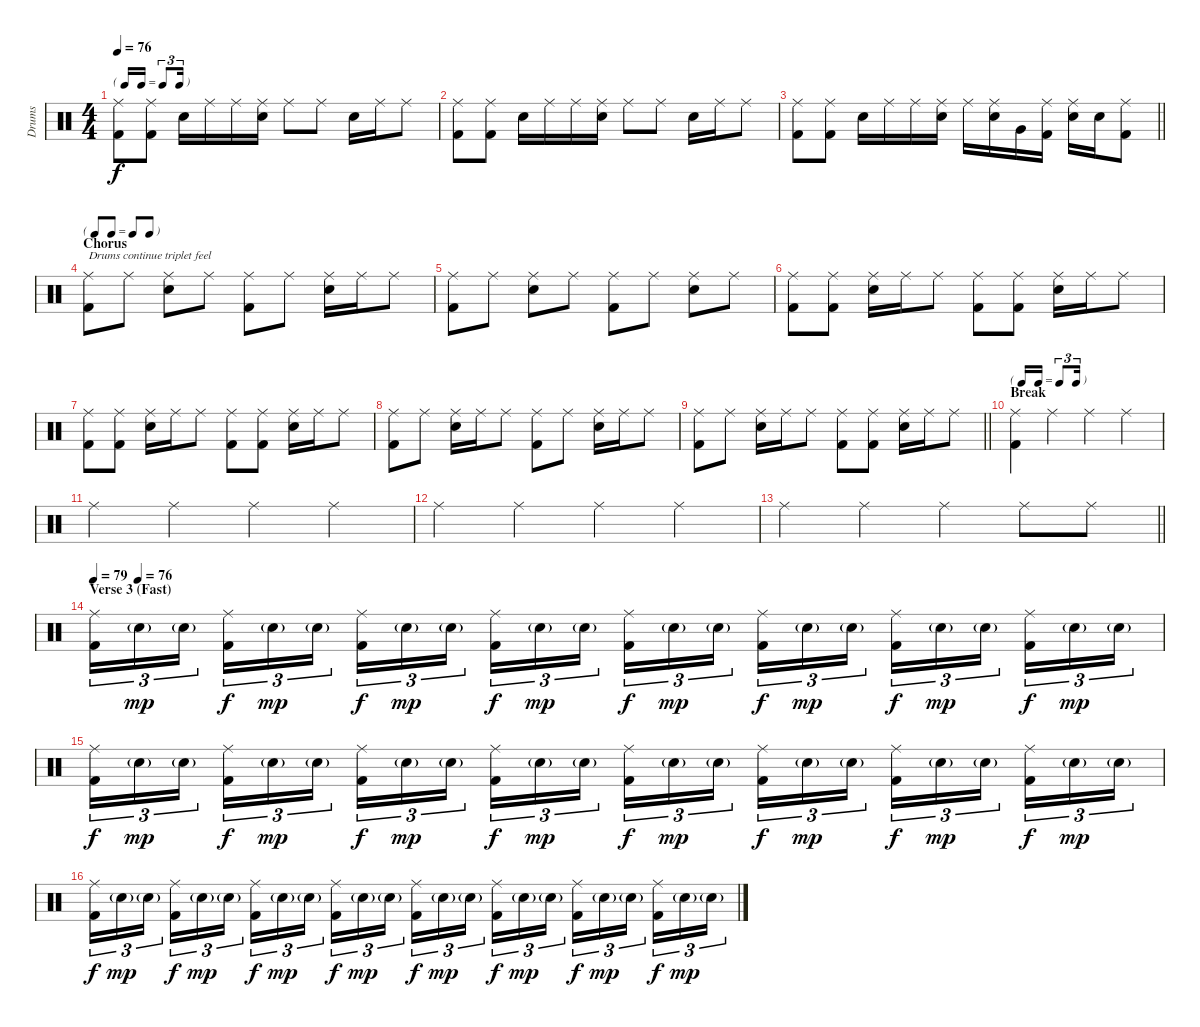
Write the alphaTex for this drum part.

\track ("Drums" "Drums") {instrument percussion}
\staff {score}
\articulation defaults
\ts (4 4)
\tf triplet16th
\tempo 76
\clef neutral
\ks c
("Ride (middle)" "Kick (hit) 2").8{dy f} ("Ride (middle)" "Kick (hit) 2").8 "Electric Snare (hit)".16 "Ride (middle)".16 "Ride (middle)".16 ("Ride (middle)" "Electric Snare (hit)").16 "Ride (middle)".8 "Ride (middle)".8 "Electric Snare (hit)".16 "Ride (middle)".16 "Ride (middle)".8 |
("Ride (middle)" "Kick (hit) 2").8 ("Ride (middle)" "Kick (hit) 2").8 "Electric Snare (hit)".16 "Ride (middle)".16 "Ride (middle)".16 ("Ride (middle)" "Electric Snare (hit)").16 "Ride (middle)".8 "Ride (middle)".8 "Electric Snare (hit)".16 "Ride (middle)".16 "Ride (middle)".8 |
\barLineRight lightlight
("Ride (middle)" "Kick (hit) 2").8 ("Ride (middle)" "Kick (hit) 2").8 "Electric Snare (hit)".16 "Ride (middle)".16 "Ride (middle)".16 ("Ride (middle)" "Electric Snare (hit)").16 "Ride (middle)".16 ("Ride (middle)" "Electric Snare (hit)").16 "Very Low Tom (hit)".16 ("Ride (middle)" "Kick (hit) 2").16 ("Ride (middle)" "Electric Snare (hit)").16 "Electric Snare (hit)".16 ("Ride (middle)" "Kick (hit) 2").8 |
\tf none
\section ("" "Chorus")
("Ride (middle)" "Kick (hit) 2").8{txt "Drums continue triplet feel"} "Ride (middle)".8 ("Ride (middle)" "Electric Snare (hit)").8 "Ride (middle)".8 ("Ride (middle)" "Kick (hit) 2").8 "Ride (middle)".8 ("Ride (middle)" "Electric Snare (hit)").16 "Ride (middle)".16 "Ride (middle)".8 |
("Ride (middle)" "Kick (hit) 2").8 "Ride (middle)".8 ("Ride (middle)" "Electric Snare (hit)").8 "Ride (middle)".8 ("Ride (middle)" "Kick (hit) 2").8 "Ride (middle)".8 ("Ride (middle)" "Electric Snare (hit)").8 "Ride (middle)".8 |
("Ride (middle)" "Kick (hit) 2").8 ("Ride (middle)" "Kick (hit) 2").8 ("Ride (middle)" "Electric Snare (hit)").16 "Ride (middle)".16 "Ride (middle)".8 ("Ride (middle)" "Kick (hit) 2").8 ("Ride (middle)" "Kick (hit) 2").8 ("Ride (middle)" "Electric Snare (hit)").16 "Ride (middle)".16 "Ride (middle)".8 |
("Ride (middle)" "Kick (hit) 2").8 ("Ride (middle)" "Kick (hit) 2").8 ("Ride (middle)" "Electric Snare (hit)").16 "Ride (middle)".16 "Ride (middle)".8 ("Ride (middle)" "Kick (hit) 2").8 ("Ride (middle)" "Kick (hit) 2").8 ("Ride (middle)" "Electric Snare (hit)").16 "Ride (middle)".16 "Ride (middle)".8 |
("Ride (middle)" "Kick (hit) 2").8 "Ride (middle)".8 ("Ride (middle)" "Electric Snare (hit)").16 "Ride (middle)".16 "Ride (middle)".8 ("Ride (middle)" "Kick (hit) 2").8 "Ride (middle)".8 ("Ride (middle)" "Electric Snare (hit)").16 "Ride (middle)".16 "Ride (middle)".8 |
\barLineRight lightlight
("Ride (middle)" "Kick (hit) 2").8 "Ride (middle)".8 ("Ride (middle)" "Electric Snare (hit)").16 "Ride (middle)".16 "Ride (middle)".8 ("Ride (middle)" "Kick (hit) 2").8 ("Ride (middle)" "Kick (hit) 2").8 ("Ride (middle)" "Electric Snare (hit)").16 "Ride (middle)".16 "Ride (middle)".8 |
\tf triplet16th
\section ("" "Break")
("Ride (middle)" "Kick (hit) 2").4 "Ride (middle)".4 "Ride (middle)".4 "Ride (middle)".4 |
"Ride (middle)".4 "Ride (middle)".4 "Ride (middle)".4 "Ride (middle)".4 |
"Ride (middle)".4 "Ride (middle)".4 "Ride (middle)".4 "Ride (middle)".4 |
\barLineRight lightlight "Ride (middle)".4 "Ride (middle)".4 "Ride (middle)".4 "Ride (middle)".8 "Ride (middle)".8
|
\section ("" "Verse 3 (Fast)")
\tempo (76 0.041666666666666664)
\tempo 79
("Ride (middle)" "Kick (hit) 2").16{tu (3 2)} "Electric Snare (hit)"{g}.16{tu (3 2) dy mp} "Electric Snare (hit)"{g}.16{tu (3 2) beam splitsecondary} ("Ride (middle)" "Kick (hit) 2").16{tu (3 2) dy f} "Electric Snare (hit)"{g}.16{tu (3 2) dy mp} "Electric Snare (hit)"{g}.16{tu (3 2)} ("Ride (middle)" "Kick (hit) 2").16{tu (3 2) dy f} "Electric Snare (hit)"{g}.16{tu (3 2) dy mp} "Electric Snare (hit)"{g}.16{tu (3 2) beam splitsecondary} ("Ride (middle)" "Kick (hit) 2").16{tu (3 2) dy f} "Electric Snare (hit)"{g}.16{tu (3 2) dy mp} "Electric Snare (hit)"{g}.16{tu (3 2)} ("Ride (middle)" "Kick (hit) 2").16{tu (3 2) dy f} "Electric Snare (hit)"{g}.16{tu (3 2) dy mp} "Electric Snare (hit)"{g}.16{tu (3 2) beam splitsecondary} ("Ride (middle)" "Kick (hit) 2").16{tu (3 2) dy f} "Electric Snare (hit)"{g}.16{tu (3 2) dy mp} "Electric Snare (hit)"{g}.16{tu (3 2)} ("Ride (middle)" "Kick (hit) 2").16{tu (3 2) dy f} "Electric Snare (hit)"{g}.16{tu (3 2) dy mp} "Electric Snare (hit)"{g}.16{tu (3 2) beam splitsecondary} ("Ride (middle)" "Kick (hit) 2").16{tu (3 2) dy f} "Electric Snare (hit)"{g}.16{tu (3 2) dy mp} "Electric Snare (hit)"{g}.16{tu (3 2)} |
("Ride (middle)" "Kick (hit) 2").16{tu (3 2) dy f} "Electric Snare (hit)"{g}.16{tu (3 2) dy mp} "Electric Snare (hit)"{g}.16{tu (3 2) beam splitsecondary} ("Ride (middle)" "Kick (hit) 2").16{tu (3 2) dy f} "Electric Snare (hit)"{g}.16{tu (3 2) dy mp} "Electric Snare (hit)"{g}.16{tu (3 2)} ("Ride (middle)" "Kick (hit) 2").16{tu (3 2) dy f} "Electric Snare (hit)"{g}.16{tu (3 2) dy mp} "Electric Snare (hit)"{g}.16{tu (3 2) beam splitsecondary} ("Ride (middle)" "Kick (hit) 2").16{tu (3 2) dy f} "Electric Snare (hit)"{g}.16{tu (3 2) dy mp} "Electric Snare (hit)"{g}.16{tu (3 2)} ("Ride (middle)" "Kick (hit) 2").16{tu (3 2) dy f} "Electric Snare (hit)"{g}.16{tu (3 2) dy mp} "Electric Snare (hit)"{g}.16{tu (3 2) beam splitsecondary} ("Ride (middle)" "Kick (hit) 2").16{tu (3 2) dy f} "Electric Snare (hit)"{g}.16{tu (3 2) dy mp} "Electric Snare (hit)"{g}.16{tu (3 2)} ("Ride (middle)" "Kick (hit) 2").16{tu (3 2) dy f} "Electric Snare (hit)"{g}.16{tu (3 2) dy mp} "Electric Snare (hit)"{g}.16{tu (3 2) beam splitsecondary} ("Ride (middle)" "Kick (hit) 2").16{tu (3 2) dy f} "Electric Snare (hit)"{g}.16{tu (3 2) dy mp} "Electric Snare (hit)"{g}.16{tu (3 2)} |
("Ride (middle)" "Kick (hit) 2").16{tu (3 2) dy f} "Electric Snare (hit)"{g}.16{tu (3 2) dy mp} "Electric Snare (hit)"{g}.16{tu (3 2) beam splitsecondary} ("Ride (middle)" "Kick (hit) 2").16{tu (3 2) dy f} "Electric Snare (hit)"{g}.16{tu (3 2) dy mp} "Electric Snare (hit)"{g}.16{tu (3 2)} ("Ride (middle)" "Kick (hit) 2").16{tu (3 2) dy f} "Electric Snare (hit)"{g}.16{tu (3 2) dy mp} "Electric Snare (hit)"{g}.16{tu (3 2) beam splitsecondary} ("Ride (middle)" "Kick (hit) 2").16{tu (3 2) dy f} "Electric Snare (hit)"{g}.16{tu (3 2) dy mp} "Electric Snare (hit)"{g}.16{tu (3 2)} ("Ride (middle)" "Kick (hit) 2").16{tu (3 2) dy f} "Electric Snare (hit)"{g}.16{tu (3 2) dy mp} "Electric Snare (hit)"{g}.16{tu (3 2) beam splitsecondary} ("Ride (middle)" "Kick (hit) 2").16{tu (3 2) dy f} "Electric Snare (hit)"{g}.16{tu (3 2) dy mp} "Electric Snare (hit)"{g}.16{tu (3 2)} ("Ride (middle)" "Kick (hit) 2").16{tu (3 2) dy f} "Electric Snare (hit)"{g}.16{tu (3 2) dy mp} "Electric Snare (hit)"{g}.16{tu (3 2) beam splitsecondary} ("Ride (middle)" "Kick (hit) 2").16{tu (3 2) dy f} "Electric Snare (hit)"{g}.16{tu (3 2) dy mp} "Electric Snare (hit)"{g}.16{tu (3 2)}
